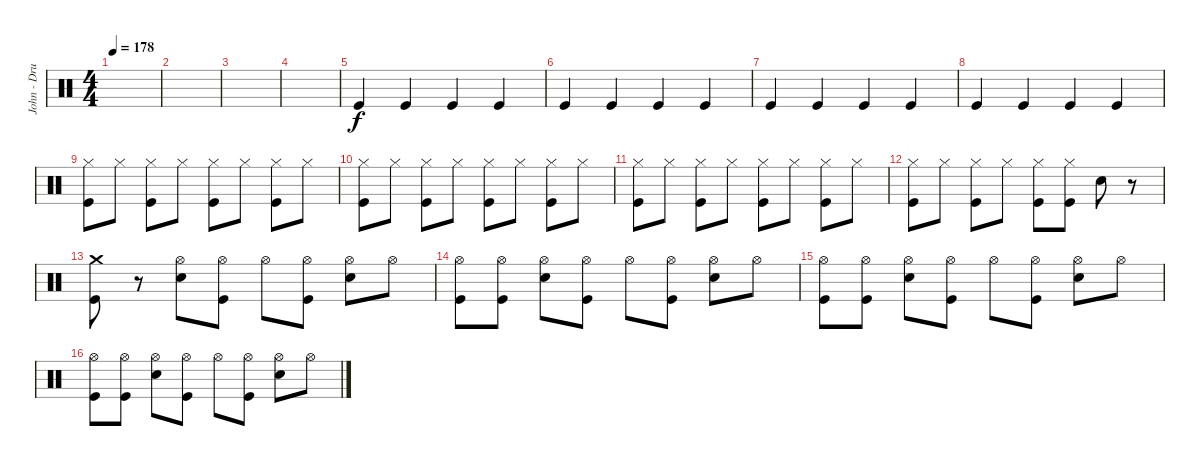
\track ("John - Drums" "John - Dru") {instrument percussion}
\staff {score}
\articulation defaults
\ts (4 4)
\tempo 178
\clef neutral
\ks c
|
|
|
|
"Kick (hit)".4 "Kick (hit)".4 "Kick (hit)".4 "Kick (hit)".4 |
"Kick (hit)".4 "Kick (hit)".4 "Kick (hit)".4 "Kick (hit)".4 |
"Kick (hit)".4 "Kick (hit)".4 "Kick (hit)".4 "Kick (hit)".4 |
"Kick (hit)".4 "Kick (hit)".4 "Kick (hit)".4 "Kick (hit)".4 |
("Hi-Hat (closed)" "Kick (hit)").8 "Hi-Hat (closed)".8 ("Hi-Hat (closed)" "Kick (hit)").8 "Hi-Hat (closed)".8 ("Hi-Hat (closed)" "Kick (hit)").8 "Hi-Hat (closed)".8 ("Hi-Hat (closed)" "Kick (hit)").8 "Hi-Hat (closed)".8 |
("Hi-Hat (closed)" "Kick (hit)").8 "Hi-Hat (closed)".8 ("Hi-Hat (closed)" "Kick (hit)").8 "Hi-Hat (closed)".8 ("Hi-Hat (closed)" "Kick (hit)").8 "Hi-Hat (closed)".8 ("Hi-Hat (closed)" "Kick (hit)").8 "Hi-Hat (closed)".8 |
("Hi-Hat (closed)" "Kick (hit)").8 "Hi-Hat (closed)".8 ("Hi-Hat (closed)" "Kick (hit)").8 "Hi-Hat (closed)".8 ("Hi-Hat (closed)" "Kick (hit)").8 "Hi-Hat (closed)".8 ("Hi-Hat (closed)" "Kick (hit)").8 "Hi-Hat (closed)".8 |
("Hi-Hat (closed)" "Kick (hit)").8 "Hi-Hat (closed)".8 ("Hi-Hat (closed)" "Kick (hit)").8 "Hi-Hat (closed)".8 ("Hi-Hat (closed)" "Kick (hit)").8 ("Hi-Hat (closed)" "Kick (hit)").8 "Electric Snare (hit)".8 r.8 |
("Crash medium (hit)" "Kick (hit)").8 r.8 ("Hi-Hat (open)" "Electric Snare (hit)").8 ("Hi-Hat (open)" "Kick (hit)").8 "Hi-Hat (open)".8 ("Hi-Hat (open)" "Kick (hit)").8 ("Hi-Hat (open)" "Electric Snare (hit)").8 "Hi-Hat (open)".8 |
("Hi-Hat (open)" "Kick (hit)").8 ("Hi-Hat (open)" "Kick (hit)").8 ("Hi-Hat (open)" "Electric Snare (hit)").8 ("Hi-Hat (open)" "Kick (hit)").8 "Hi-Hat (open)".8 ("Hi-Hat (open)" "Kick (hit)").8 ("Hi-Hat (open)" "Electric Snare (hit)").8 "Hi-Hat (open)".8 |
("Hi-Hat (open)" "Kick (hit)").8 ("Hi-Hat (open)" "Kick (hit)").8 ("Hi-Hat (open)" "Electric Snare (hit)").8 ("Hi-Hat (open)" "Kick (hit)").8 "Hi-Hat (open)".8 ("Hi-Hat (open)" "Kick (hit)").8 ("Hi-Hat (open)" "Electric Snare (hit)").8 "Hi-Hat (open)".8 |
("Hi-Hat (open)" "Kick (hit)").8 ("Hi-Hat (open)" "Kick (hit)").8 ("Hi-Hat (open)" "Electric Snare (hit)").8 ("Hi-Hat (open)" "Kick (hit)").8 "Hi-Hat (open)".8 ("Hi-Hat (open)" "Kick (hit)").8 ("Hi-Hat (open)" "Electric Snare (hit)").8 "Hi-Hat (open)".8
